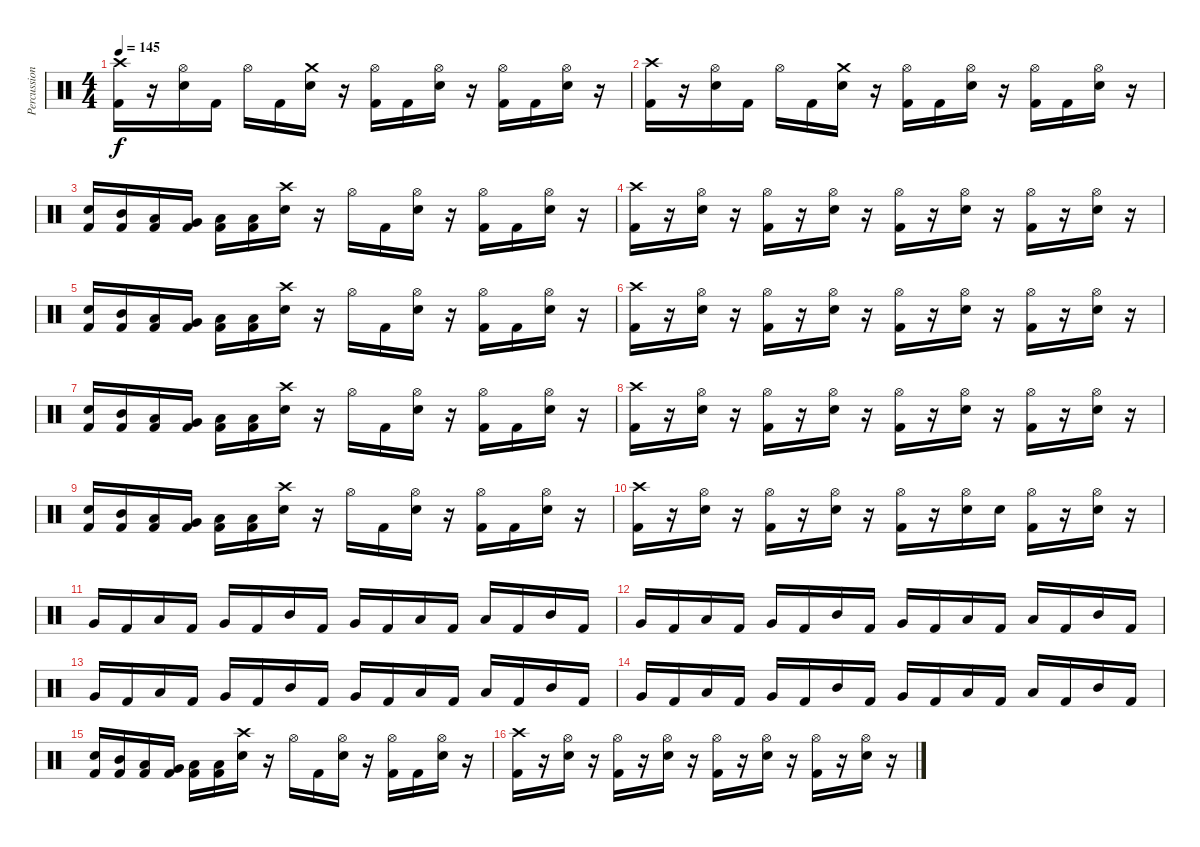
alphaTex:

\track ("Percussion - pinch" "Percussion") {instrument percussion}
\staff
\articulation defaults
\ts (4 4)
\tempo 145
\clef neutral
\ks c
("Crash high (hit)" "Kick (hit) 2").16{dy f} r.16 ("Hi-Hat (open)" "Electric Snare (hit)").16 "Kick (hit) 2".16 "Hi-Hat (open)".16 "Kick (hit) 2".16 ("Crash medium (hit)" "Electric Snare (hit)").16 r.16 ("Hi-Hat (open)" "Kick (hit) 2").16 "Kick (hit) 2".16 ("Hi-Hat (open)" "Electric Snare (hit)").16 r.16 ("Hi-Hat (open)" "Kick (hit) 2").16 "Kick (hit) 2".16 ("Hi-Hat (open)" "Electric Snare (hit)").16 r.16 |
("Crash high (hit)" "Kick (hit) 2").16 r.16 ("Hi-Hat (open)" "Electric Snare (hit)").16 "Kick (hit) 2".16 "Hi-Hat (open)".16 "Kick (hit) 2".16 ("Crash medium (hit)" "Electric Snare (hit)").16 r.16 ("Hi-Hat (open)" "Kick (hit) 2").16 "Kick (hit) 2".16 ("Hi-Hat (open)" "Electric Snare (hit)").16 r.16 ("Hi-Hat (open)" "Kick (hit) 2").16 "Kick (hit) 2".16 ("Hi-Hat (open)" "Electric Snare (hit)").16 r.16 |
("Electric Snare (hit)" "Kick (hit) 2").16 ("Mid Tom (hit)" "Kick (hit) 2").16 ("Low Tom (hit)" "Kick (hit) 2").16 ("Very Low Tom (hit)" "Kick (hit) 2").16 ("Low Floor Tom (hit)" "Kick (hit) 2").16 ("Low Floor Tom (hit)" "Kick (hit) 2").16 ("Crash high (hit)" "Electric Snare (hit)").16 r.16 "Hi-Hat (open)".16 "Kick (hit) 2".16 ("Hi-Hat (open)" "Electric Snare (hit)").16 r.16 ("Hi-Hat (open)" "Kick (hit) 2").16 "Kick (hit) 2".16 ("Hi-Hat (open)" "Electric Snare (hit)").16 r.16 |
("Crash high (hit)" "Kick (hit) 2").16 r.16 ("Hi-Hat (open)" "Electric Snare (hit)").16 r.16 ("Hi-Hat (open)" "Kick (hit) 2").16 r.16 ("Hi-Hat (open)" "Electric Snare (hit)").16 r.16 ("Hi-Hat (open)" "Kick (hit) 2").16 r.16 ("Hi-Hat (open)" "Electric Snare (hit)").16 r.16 ("Hi-Hat (open)" "Kick (hit) 2").16 r.16 ("Hi-Hat (open)" "Electric Snare (hit)").16 r.16 |
("Electric Snare (hit)" "Kick (hit) 2").16 ("Mid Tom (hit)" "Kick (hit) 2").16 ("Low Tom (hit)" "Kick (hit) 2").16 ("Very Low Tom (hit)" "Kick (hit) 2").16 ("Low Floor Tom (hit)" "Kick (hit) 2").16 ("Low Floor Tom (hit)" "Kick (hit) 2").16 ("Crash high (hit)" "Electric Snare (hit)").16 r.16 "Hi-Hat (open)".16 "Kick (hit) 2".16 ("Hi-Hat (open)" "Electric Snare (hit)").16 r.16 ("Hi-Hat (open)" "Kick (hit) 2").16 "Kick (hit) 2".16 ("Hi-Hat (open)" "Electric Snare (hit)").16 r.16 |
("Crash high (hit)" "Kick (hit) 2").16 r.16 ("Hi-Hat (open)" "Electric Snare (hit)").16 r.16 ("Hi-Hat (open)" "Kick (hit) 2").16 r.16 ("Hi-Hat (open)" "Electric Snare (hit)").16 r.16 ("Hi-Hat (open)" "Kick (hit) 2").16 r.16 ("Hi-Hat (open)" "Electric Snare (hit)").16 r.16 ("Hi-Hat (open)" "Kick (hit) 2").16 r.16 ("Hi-Hat (open)" "Electric Snare (hit)").16 r.16 |
("Electric Snare (hit)" "Kick (hit) 2").16 ("Mid Tom (hit)" "Kick (hit) 2").16 ("Low Tom (hit)" "Kick (hit) 2").16 ("Very Low Tom (hit)" "Kick (hit) 2").16 ("Low Floor Tom (hit)" "Kick (hit) 2").16 ("Low Floor Tom (hit)" "Kick (hit) 2").16 ("Crash high (hit)" "Electric Snare (hit)").16 r.16 "Hi-Hat (open)".16 "Kick (hit) 2".16 ("Hi-Hat (open)" "Electric Snare (hit)").16 r.16 ("Hi-Hat (open)" "Kick (hit) 2").16 "Kick (hit) 2".16 ("Hi-Hat (open)" "Electric Snare (hit)").16 r.16 |
("Crash high (hit)" "Kick (hit) 2").16 r.16 ("Hi-Hat (open)" "Electric Snare (hit)").16 r.16 ("Hi-Hat (open)" "Kick (hit) 2").16 r.16 ("Hi-Hat (open)" "Electric Snare (hit)").16 r.16 ("Hi-Hat (open)" "Kick (hit) 2").16 r.16 ("Hi-Hat (open)" "Electric Snare (hit)").16 r.16 ("Hi-Hat (open)" "Kick (hit) 2").16 r.16 ("Hi-Hat (open)" "Electric Snare (hit)").16 r.16 |
("Electric Snare (hit)" "Kick (hit) 2").16 ("Mid Tom (hit)" "Kick (hit) 2").16 ("Low Tom (hit)" "Kick (hit) 2").16 ("Very Low Tom (hit)" "Kick (hit) 2").16 ("Low Floor Tom (hit)" "Kick (hit) 2").16 ("Low Floor Tom (hit)" "Kick (hit) 2").16 ("Crash high (hit)" "Electric Snare (hit)").16 r.16 "Hi-Hat (open)".16 "Kick (hit) 2".16 ("Hi-Hat (open)" "Electric Snare (hit)").16 r.16 ("Hi-Hat (open)" "Kick (hit) 2").16 "Kick (hit) 2".16 ("Hi-Hat (open)" "Electric Snare (hit)").16 r.16 |
("Crash high (hit)" "Kick (hit) 2").16 r.16 ("Hi-Hat (open)" "Electric Snare (hit)").16 r.16 ("Hi-Hat (open)" "Kick (hit) 2").16 r.16 ("Hi-Hat (open)" "Electric Snare (hit)").16 r.16 ("Hi-Hat (open)" "Kick (hit) 2").16 r.16 ("Hi-Hat (open)" "Electric Snare (hit)").16 "Electric Snare (hit)".16 ("Hi-Hat (open)" "Kick (hit) 2").16 r.16 ("Hi-Hat (open)" "Electric Snare (hit)").16 r.16 |
"Very Low Tom (hit)".16 "Kick (hit) 2".16 "Low Tom (hit)".16 "Kick (hit) 2".16 "Very Low Tom (hit)".16 "Kick (hit) 2".16 "Mid Tom (hit)".16 "Kick (hit) 2".16 "Very Low Tom (hit)".16 "Kick (hit) 2".16 "Low Tom (hit)".16 "Kick (hit) 2".16 "Low Floor Tom (hit)".16 "Kick (hit) 2".16 "Mid Tom (hit)".16 "Kick (hit) 2".16 |
"Very Low Tom (hit)".16 "Kick (hit) 2".16 "Low Tom (hit)".16 "Kick (hit) 2".16 "Very Low Tom (hit)".16 "Kick (hit) 2".16 "Mid Tom (hit)".16 "Kick (hit) 2".16 "Very Low Tom (hit)".16 "Kick (hit) 2".16 "Low Tom (hit)".16 "Kick (hit) 2".16 "Low Floor Tom (hit)".16 "Kick (hit) 2".16 "Mid Tom (hit)".16 "Kick (hit) 2".16 |
"Very Low Tom (hit)".16 "Kick (hit) 2".16 "Low Tom (hit)".16 "Kick (hit) 2".16 "Very Low Tom (hit)".16 "Kick (hit) 2".16 "Mid Tom (hit)".16 "Kick (hit) 2".16 "Very Low Tom (hit)".16 "Kick (hit) 2".16 "Low Tom (hit)".16 "Kick (hit) 2".16 "Low Floor Tom (hit)".16 "Kick (hit) 2".16 "Mid Tom (hit)".16 "Kick (hit) 2".16 |
"Very Low Tom (hit)".16 "Kick (hit) 2".16 "Low Tom (hit)".16 "Kick (hit) 2".16 "Very Low Tom (hit)".16 "Kick (hit) 2".16 "Mid Tom (hit)".16 "Kick (hit) 2".16 "Very Low Tom (hit)".16 "Kick (hit) 2".16 "Low Tom (hit)".16 "Kick (hit) 2".16 "Low Floor Tom (hit)".16 "Kick (hit) 2".16 "Mid Tom (hit)".16 "Kick (hit) 2".16 |
("Electric Snare (hit)" "Kick (hit) 2").16 ("Mid Tom (hit)" "Kick (hit) 2").16 ("Low Tom (hit)" "Kick (hit) 2").16 ("Very Low Tom (hit)" "Kick (hit) 2").16 ("Low Floor Tom (hit)" "Kick (hit) 2").16 ("Low Floor Tom (hit)" "Kick (hit) 2").16 ("Crash high (hit)" "Electric Snare (hit)").16 r.16 "Hi-Hat (open)".16 "Kick (hit) 2".16 ("Hi-Hat (open)" "Electric Snare (hit)").16 r.16 ("Hi-Hat (open)" "Kick (hit) 2").16 "Kick (hit) 2".16 ("Hi-Hat (open)" "Electric Snare (hit)").16 r.16 |
("Crash high (hit)" "Kick (hit) 2").16 r.16 ("Hi-Hat (open)" "Electric Snare (hit)").16 r.16 ("Hi-Hat (open)" "Kick (hit) 2").16 r.16 ("Hi-Hat (open)" "Electric Snare (hit)").16 r.16 ("Hi-Hat (open)" "Kick (hit) 2").16 r.16 ("Hi-Hat (open)" "Electric Snare (hit)").16 r.16 ("Hi-Hat (open)" "Kick (hit) 2").16 r.16 ("Hi-Hat (open)" "Electric Snare (hit)").16 r.16
